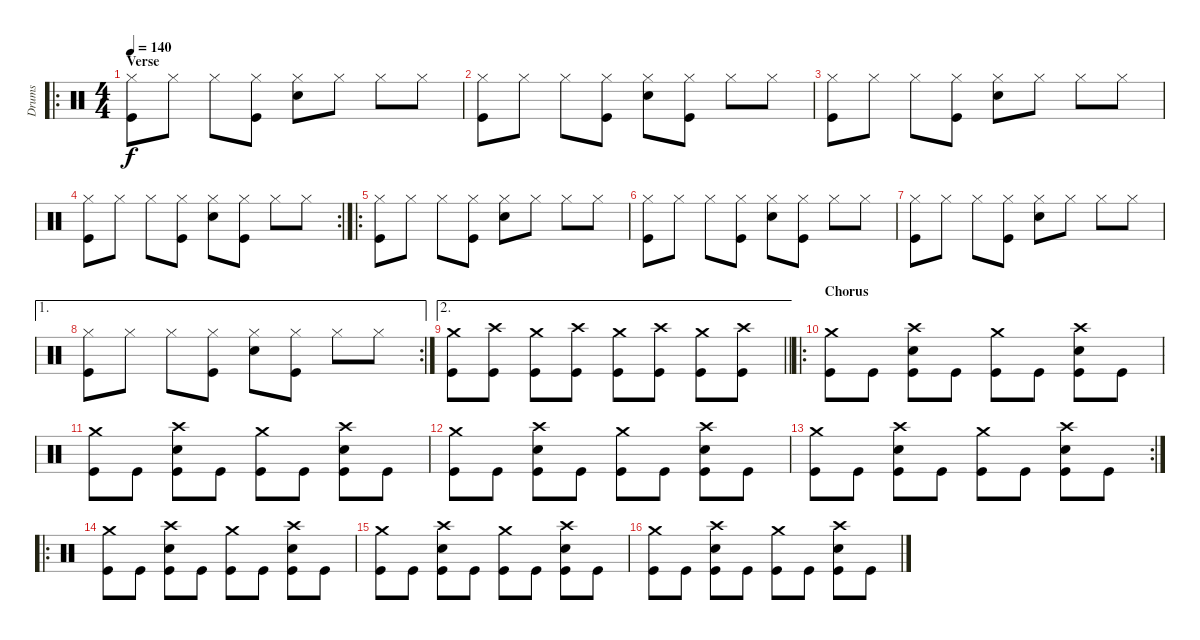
\track ("Drums" "Drums") {instrument percussion}
\staff {score}
\articulation defaults
\ro
\ts (4 4)
\section ("" "Verse")
\tempo 140
\clef neutral
\ks c
("Hi-Hat (closed)" "Kick (hit)").8{dy f} "Hi-Hat (closed)".8 "Hi-Hat (closed)".8 ("Hi-Hat (closed)" "Kick (hit)").8 ("Hi-Hat (closed)" "Snare (hit) 2").8 "Hi-Hat (closed)".8 "Hi-Hat (closed)".8 "Hi-Hat (closed)".8 |
("Hi-Hat (closed)" "Kick (hit)").8 "Hi-Hat (closed)".8 "Hi-Hat (closed)".8 ("Hi-Hat (closed)" "Kick (hit)").8 ("Hi-Hat (closed)" "Snare (hit) 2").8 ("Hi-Hat (closed)" "Kick (hit)").8 "Hi-Hat (closed)".8 "Hi-Hat (closed)".8 |
("Hi-Hat (closed)" "Kick (hit)").8 "Hi-Hat (closed)".8 "Hi-Hat (closed)".8 ("Hi-Hat (closed)" "Kick (hit)").8 ("Hi-Hat (closed)" "Snare (hit) 2").8 "Hi-Hat (closed)".8 "Hi-Hat (closed)".8 "Hi-Hat (closed)".8 |
\rc 2
("Hi-Hat (closed)" "Kick (hit)").8 "Hi-Hat (closed)".8 "Hi-Hat (closed)".8 ("Hi-Hat (closed)" "Kick (hit)").8 ("Hi-Hat (closed)" "Snare (hit) 2").8 ("Hi-Hat (closed)" "Kick (hit)").8 "Hi-Hat (closed)".8 "Hi-Hat (closed)".8 |
\ro
("Hi-Hat (closed)" "Kick (hit)").8 "Hi-Hat (closed)".8 "Hi-Hat (closed)".8 ("Hi-Hat (closed)" "Kick (hit)").8 ("Hi-Hat (closed)" "Snare (hit) 2").8 "Hi-Hat (closed)".8 "Hi-Hat (closed)".8 "Hi-Hat (closed)".8 |
("Hi-Hat (closed)" "Kick (hit)").8 "Hi-Hat (closed)".8 "Hi-Hat (closed)".8 ("Hi-Hat (closed)" "Kick (hit)").8 ("Hi-Hat (closed)" "Snare (hit) 2").8 ("Hi-Hat (closed)" "Kick (hit)").8 "Hi-Hat (closed)".8 "Hi-Hat (closed)".8 |
("Hi-Hat (closed)" "Kick (hit)").8 "Hi-Hat (closed)".8 "Hi-Hat (closed)".8 ("Hi-Hat (closed)" "Kick (hit)").8 ("Hi-Hat (closed)" "Snare (hit) 2").8 "Hi-Hat (closed)".8 "Hi-Hat (closed)".8 "Hi-Hat (closed)".8 |
\ae 1
\rc 2
("Hi-Hat (closed)" "Kick (hit)").8 "Hi-Hat (closed)".8 "Hi-Hat (closed)".8 ("Hi-Hat (closed)" "Kick (hit)").8 ("Hi-Hat (closed)" "Snare (hit) 2").8 ("Hi-Hat (closed)" "Kick (hit)").8 "Hi-Hat (closed)".8 "Hi-Hat (closed)".8 |
\ae 2
\barLineRight lightlight
("Crash medium (hit)" "Kick (hit)").8 ("Crash high (hit)" "Kick (hit)").8 ("Crash medium (hit)" "Kick (hit)").8 ("Crash high (hit)" "Kick (hit)").8 ("Crash medium (hit)" "Kick (hit)").8 ("Crash high (hit)" "Kick (hit)").8 ("Crash medium (hit)" "Kick (hit)").8 ("Crash high (hit)" "Kick (hit)").8 |
\ro
\section ("" "Chorus")
("Crash medium (hit)" "Kick (hit)").8 "Kick (hit)".8 ("Crash high (hit)" "Snare (hit) 2" "Kick (hit)").8 "Kick (hit)".8 ("Crash medium (hit)" "Kick (hit)").8 "Kick (hit)".8 ("Crash high (hit)" "Snare (hit) 2" "Kick (hit)").8 "Kick (hit)".8 |
("Crash medium (hit)" "Kick (hit)").8 "Kick (hit)".8 ("Crash high (hit)" "Snare (hit) 2" "Kick (hit)").8 "Kick (hit)".8 ("Crash medium (hit)" "Kick (hit)").8 "Kick (hit)".8 ("Crash high (hit)" "Snare (hit) 2" "Kick (hit)").8 "Kick (hit)".8 |
("Crash medium (hit)" "Kick (hit)").8 "Kick (hit)".8 ("Crash high (hit)" "Snare (hit) 2" "Kick (hit)").8 "Kick (hit)".8 ("Crash medium (hit)" "Kick (hit)").8 "Kick (hit)".8 ("Crash high (hit)" "Snare (hit) 2" "Kick (hit)").8 "Kick (hit)".8 |
\rc 2
("Crash medium (hit)" "Kick (hit)").8 "Kick (hit)".8 ("Crash high (hit)" "Snare (hit) 2" "Kick (hit)").8 "Kick (hit)".8 ("Crash medium (hit)" "Kick (hit)").8 "Kick (hit)".8 ("Crash high (hit)" "Snare (hit) 2" "Kick (hit)").8 "Kick (hit)".8 |
\ro
("Crash medium (hit)" "Kick (hit)").8 "Kick (hit)".8 ("Crash high (hit)" "Snare (hit) 2" "Kick (hit)").8 "Kick (hit)".8 ("Crash medium (hit)" "Kick (hit)").8 "Kick (hit)".8 ("Crash high (hit)" "Snare (hit) 2" "Kick (hit)").8 "Kick (hit)".8 |
("Crash medium (hit)" "Kick (hit)").8 "Kick (hit)".8 ("Crash high (hit)" "Snare (hit) 2" "Kick (hit)").8 "Kick (hit)".8 ("Crash medium (hit)" "Kick (hit)").8 "Kick (hit)".8 ("Crash high (hit)" "Snare (hit) 2" "Kick (hit)").8 "Kick (hit)".8 |
("Crash medium (hit)" "Kick (hit)").8 "Kick (hit)".8 ("Crash high (hit)" "Snare (hit) 2" "Kick (hit)").8 "Kick (hit)".8 ("Crash medium (hit)" "Kick (hit)").8 "Kick (hit)".8 ("Crash high (hit)" "Snare (hit) 2" "Kick (hit)").8 "Kick (hit)".8
